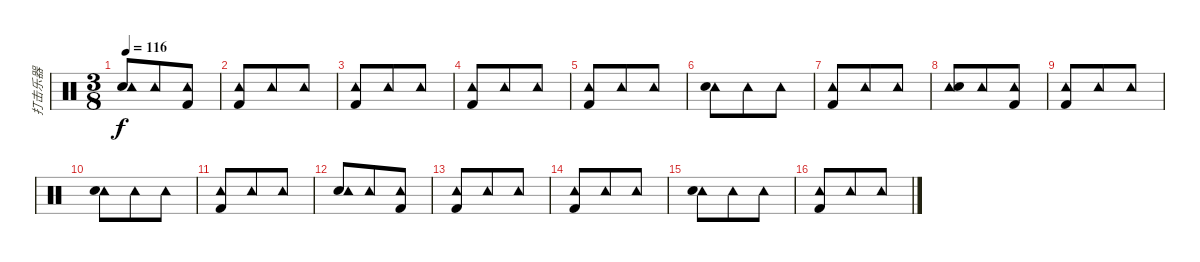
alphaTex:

\track ("打击乐器" "打击乐器") {instrument percussion}
\staff {score}
\articulation defaults
\ts (3 8)
\tempo 116
\clef neutral
\ks c
("Snare (hit) 2" "Tambourine (hit)").8{dy f} "Tambourine (hit)".8 ("Tambourine (hit)" "Kick (hit) 2").8 |
("Tambourine (hit)" "Kick (hit) 2").8 "Tambourine (hit)".8 "Tambourine (hit)".8 |
("Tambourine (hit)" "Kick (hit) 2").8 "Tambourine (hit)".8 "Tambourine (hit)".8 |
("Tambourine (hit)" "Kick (hit) 2").8 "Tambourine (hit)".8 "Tambourine (hit)".8 |
("Tambourine (hit)" "Kick (hit) 2").8 "Tambourine (hit)".8 "Tambourine (hit)".8 |
("Tambourine (hit)" "Snare (hit) 2").8 "Tambourine (hit)".8 "Tambourine (hit)".8 |
("Tambourine (hit)" "Kick (hit) 2").8 "Tambourine (hit)".8 "Tambourine (hit)".8 |
("Tambourine (hit)" "Snare (hit) 2").8 "Tambourine (hit)".8 ("Tambourine (hit)" "Kick (hit) 2").8 |
("Tambourine (hit)" "Kick (hit) 2").8 "Tambourine (hit)".8 "Tambourine (hit)".8 |
("Tambourine (hit)" "Snare (hit) 2").8 "Tambourine (hit)".8 "Tambourine (hit)".8 |
("Tambourine (hit)" "Kick (hit) 2").8 "Tambourine (hit)".8 "Tambourine (hit)".8 |
("Snare (hit) 2" "Tambourine (hit)").8 "Tambourine (hit)".8 ("Tambourine (hit)" "Kick (hit) 2").8 |
("Tambourine (hit)" "Kick (hit) 2").8 "Tambourine (hit)".8 "Tambourine (hit)".8 |
("Tambourine (hit)" "Kick (hit) 2").8 "Tambourine (hit)".8 "Tambourine (hit)".8 |
("Tambourine (hit)" "Snare (hit) 2").8 "Tambourine (hit)".8 "Tambourine (hit)".8 |
("Tambourine (hit)" "Kick (hit) 2").8 "Tambourine (hit)".8 "Tambourine (hit)".8
